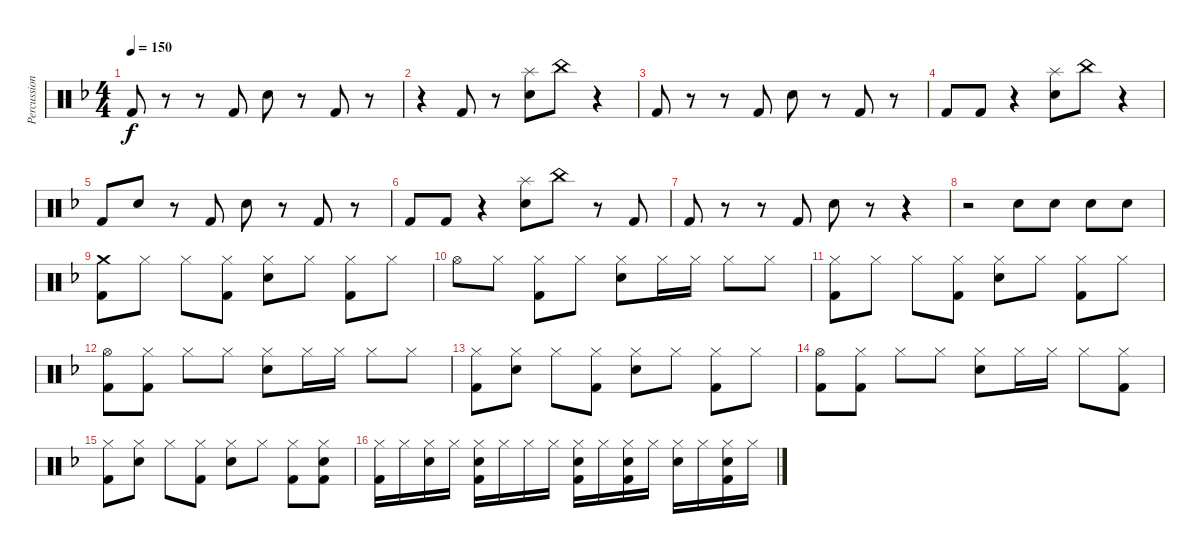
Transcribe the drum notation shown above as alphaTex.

\track ("Percussion" "Percussion") {instrument percussion}
\staff {score}
\articulation defaults
\ts (4 4)
\tempo 150
\clef neutral
\ks f "Kick (hit) 2".8{dy f}
r.8 r.8 "Kick (hit) 2".8 "Electric Snare (hit)".8 r.8 "Kick (hit) 2".8 r.8 |
r.4 "Kick (hit) 2".8 r.8 ("Splash (hit)" "Electric Snare (hit)").8 "China (hit)".8 r.4 |
"Kick (hit) 2".8 r.8 r.8 "Kick (hit) 2".8 "Electric Snare (hit)".8 r.8 "Kick (hit) 2".8 r.8 |
"Kick (hit) 2".8 "Kick (hit) 2".8 r.4 ("Splash (hit)" "Electric Snare (hit)").8 "China (hit)".8 r.4 |
"Kick (hit) 2".8 "Electric Snare (hit)".8 r.8 "Kick (hit) 2".8 "Electric Snare (hit)".8 r.8 "Kick (hit) 2".8 r.8 |
"Kick (hit) 2".8 "Kick (hit) 2".8 r.4 ("Splash (hit)" "Electric Snare (hit)").8 "China (hit)".8 r.8 "Kick (hit) 2".8 |
"Kick (hit) 2".8 r.8 r.8 "Kick (hit) 2".8 "Electric Snare (hit)".8 r.8 r.4 |
r.2 "Electric Snare (hit)".8 "Electric Snare (hit)".8 "Electric Snare (hit)".8 "Electric Snare (hit)".8 |
("Crash medium (hit)" "Kick (hit) 2").8 "Hi-Hat (closed)".8 "Hi-Hat (closed)".8 ("Hi-Hat (closed)" "Kick (hit) 2").8 ("Hi-Hat (closed)" "Electric Snare (hit)").8 "Hi-Hat (closed)".8 ("Hi-Hat (closed)" "Kick (hit) 2").8 "Hi-Hat (closed)".8 |
"Hi-Hat (open)".8 "Hi-Hat (closed)".8 ("Hi-Hat (closed)" "Kick (hit) 2").8 "Hi-Hat (closed)".8 ("Hi-Hat (closed)" "Electric Snare (hit)").8 "Hi-Hat (closed)".16 "Hi-Hat (closed)".16 "Hi-Hat (closed)".8 "Hi-Hat (closed)".8 |
("Hi-Hat (closed)" "Kick (hit) 2").8 "Hi-Hat (closed)".8 "Hi-Hat (closed)".8 ("Hi-Hat (closed)" "Kick (hit) 2").8 ("Hi-Hat (closed)" "Electric Snare (hit)").8 "Hi-Hat (closed)".8 ("Hi-Hat (closed)" "Kick (hit) 2").8 "Hi-Hat (closed)".8 |
("Hi-Hat (open)" "Kick (hit) 2").8 ("Hi-Hat (closed)" "Kick (hit) 2").8 "Hi-Hat (closed)".8 "Hi-Hat (closed)".8 ("Hi-Hat (closed)" "Electric Snare (hit)").8 "Hi-Hat (closed)".16 "Hi-Hat (closed)".16 "Hi-Hat (closed)".8 "Hi-Hat (closed)".8 |
("Hi-Hat (closed)" "Kick (hit) 2").8 ("Hi-Hat (closed)" "Electric Snare (hit)").8 "Hi-Hat (closed)".8 ("Hi-Hat (closed)" "Kick (hit) 2").8 ("Hi-Hat (closed)" "Electric Snare (hit)").8 "Hi-Hat (closed)".8 ("Hi-Hat (closed)" "Kick (hit) 2").8 "Hi-Hat (closed)".8 |
("Hi-Hat (open)" "Kick (hit) 2").8 ("Hi-Hat (closed)" "Kick (hit) 2").8 "Hi-Hat (closed)".8 "Hi-Hat (closed)".8 ("Hi-Hat (closed)" "Electric Snare (hit)").8 "Hi-Hat (closed)".16 "Hi-Hat (closed)".16 "Hi-Hat (closed)".8 ("Hi-Hat (closed)" "Kick (hit) 2").8 |
("Hi-Hat (closed)" "Kick (hit) 2").8 ("Hi-Hat (closed)" "Electric Snare (hit)").8 "Hi-Hat (closed)".8 ("Hi-Hat (closed)" "Kick (hit) 2").8 ("Hi-Hat (closed)" "Electric Snare (hit)").8 "Hi-Hat (closed)".8 ("Hi-Hat (closed)" "Kick (hit) 2").8 ("Hi-Hat (closed)" "Electric Snare (hit)" "Kick (hit) 2").8 |
("Hi-Hat (closed)" "Kick (hit) 2").16 "Hi-Hat (closed)".16 ("Hi-Hat (closed)" "Electric Snare (hit)").16 "Hi-Hat (closed)".16 ("Hi-Hat (closed)" "Electric Snare (hit)" "Kick (hit) 2").16 "Hi-Hat (closed)".16 "Hi-Hat (closed)".16 "Hi-Hat (closed)".16 ("Hi-Hat (closed)" "Electric Snare (hit)" "Kick (hit) 2").16 "Hi-Hat (closed)".16 ("Hi-Hat (closed)" "Electric Snare (hit)" "Kick (hit) 2").16 "Hi-Hat (closed)".16 ("Hi-Hat (closed)" "Electric Snare (hit)").16 "Hi-Hat (closed)".16 ("Hi-Hat (closed)" "Electric Snare (hit)" "Kick (hit) 2").16 "Hi-Hat (closed)".16
